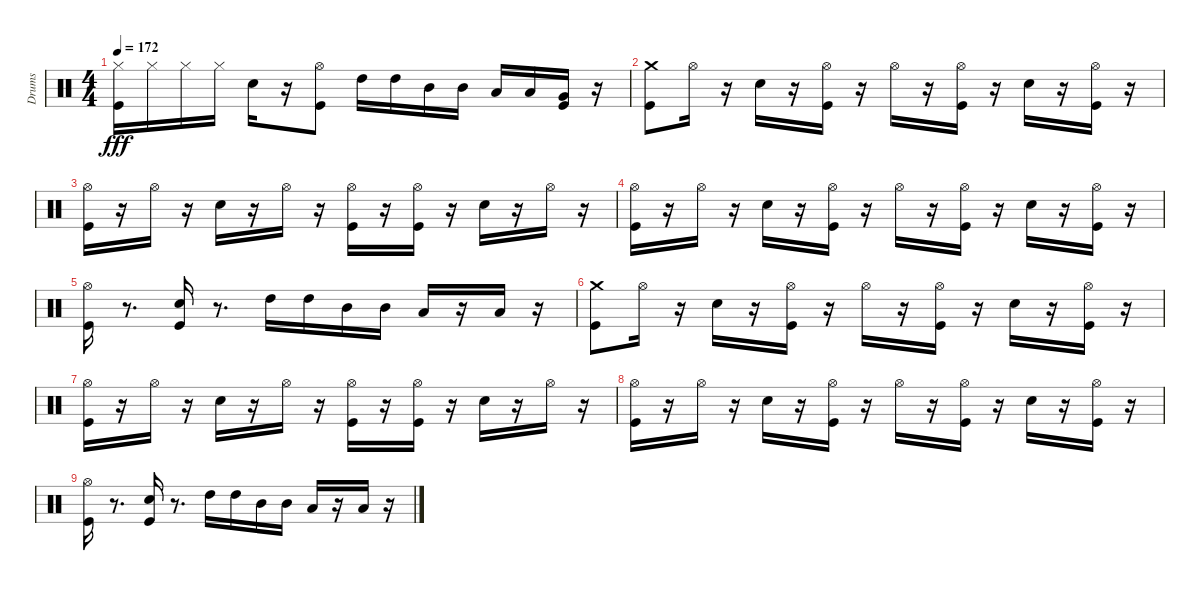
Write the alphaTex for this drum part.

\track ("Drums" "Drums") {instrument percussion}
\staff {score}
\articulation defaults
\ts (4 4)
\tempo 172
\clef neutral
\ks c
("Hi-Hat (closed)" "Kick (hit)").16{dy fff} "Hi-Hat (closed)".16 "Hi-Hat (closed)".16 "Hi-Hat (closed)".16 "Snare (hit) 2".16 r.16 ("Hi-Hat (open)" "Kick (hit)").8 "High Tom (hit)".16 "High Tom (hit)".16 "Mid Tom (hit)".16 "Mid Tom (hit)".16 "Low Tom (hit)".16 "Low Tom (hit)".16 ("Kick (hit)" "Very Low Tom (hit)").16 r.16 |
("Crash medium (hit)" "Kick (hit)").8 "Hi-Hat (open)".16 r.16 "Snare (hit) 2".16 r.16 ("Hi-Hat (open)" "Kick (hit)").16 r.16 "Hi-Hat (open)".16 r.16 ("Hi-Hat (open)" "Kick (hit)").16 r.16 "Snare (hit) 2".16 r.16 ("Hi-Hat (open)" "Kick (hit)").16 r.16 |
("Hi-Hat (open)" "Kick (hit)").16 r.16 "Hi-Hat (open)".16 r.16 "Snare (hit) 2".16 r.16 "Hi-Hat (open)".16 r.16 ("Hi-Hat (open)" "Kick (hit)").16 r.16 ("Hi-Hat (open)" "Kick (hit)").16 r.16 "Snare (hit) 2".16 r.16 "Hi-Hat (open)".16 r.16 |
("Hi-Hat (open)" "Kick (hit)").16 r.16 "Hi-Hat (open)".16 r.16 "Snare (hit) 2".16 r.16 ("Hi-Hat (open)" "Kick (hit)").16 r.16 "Hi-Hat (open)".16 r.16 ("Hi-Hat (open)" "Kick (hit)").16 r.16 "Snare (hit) 2".16 r.16 ("Hi-Hat (open)" "Kick (hit)").16 r.16 |
("Hi-Hat (open)" "Kick (hit)").16 r.8{d} ("Kick (hit)" "Snare (hit) 2").16 r.8{d} "High Tom (hit)".16 "High Tom (hit)".16 "Mid Tom (hit)".16 "Mid Tom (hit)".16 "Low Tom (hit)".16 r.16 "Low Tom (hit)".16 r.16 |
("Crash medium (hit)" "Kick (hit)").8 "Hi-Hat (open)".16 r.16 "Snare (hit) 2".16 r.16 ("Hi-Hat (open)" "Kick (hit)").16 r.16 "Hi-Hat (open)".16 r.16 ("Hi-Hat (open)" "Kick (hit)").16 r.16 "Snare (hit) 2".16 r.16 ("Hi-Hat (open)" "Kick (hit)").16 r.16 |
("Hi-Hat (open)" "Kick (hit)").16 r.16 "Hi-Hat (open)".16 r.16 "Snare (hit) 2".16 r.16 "Hi-Hat (open)".16 r.16 ("Hi-Hat (open)" "Kick (hit)").16 r.16 ("Hi-Hat (open)" "Kick (hit)").16 r.16 "Snare (hit) 2".16 r.16 "Hi-Hat (open)".16 r.16 |
("Hi-Hat (open)" "Kick (hit)").16 r.16 "Hi-Hat (open)".16 r.16 "Snare (hit) 2".16 r.16 ("Hi-Hat (open)" "Kick (hit)").16 r.16 "Hi-Hat (open)".16 r.16 ("Hi-Hat (open)" "Kick (hit)").16 r.16 "Snare (hit) 2".16 r.16 ("Hi-Hat (open)" "Kick (hit)").16 r.16 |
("Hi-Hat (open)" "Kick (hit)").16 r.8{d} ("Kick (hit)" "Snare (hit) 2").16 r.8{d} "High Tom (hit)".16 "High Tom (hit)".16 "Mid Tom (hit)".16 "Mid Tom (hit)".16 "Low Tom (hit)".16 r.16 "Low Tom (hit)".16 r.16
